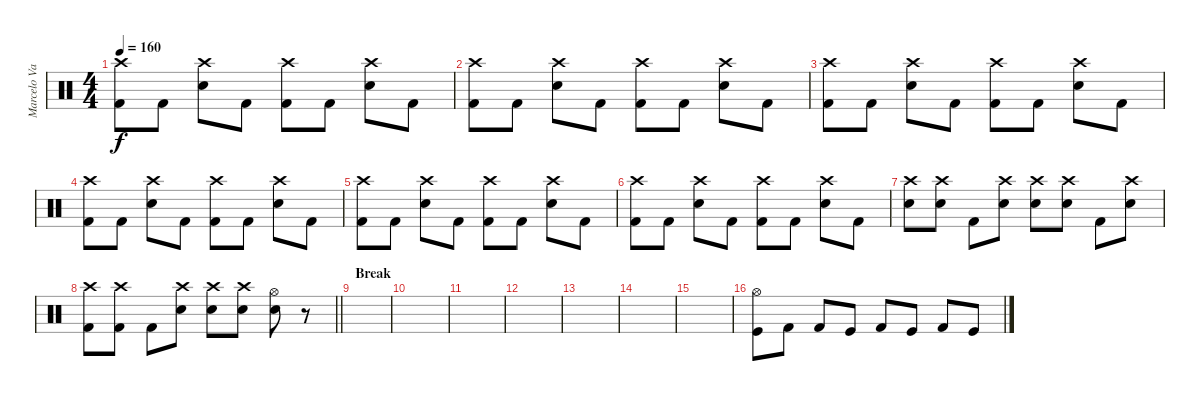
\track ("Marcelo Valenzuela (Bateria)" "Marcelo Va") {instrument percussion}
\staff {score}
\articulation defaults
\ts (4 4)
\tempo 160
\clef neutral
\ks c
("Crash high (hit)" "Kick (hit) 2").8{dy f} "Kick (hit) 2".8 ("Crash high (hit)" "Electric Snare (hit)").8 "Kick (hit) 2".8 ("Crash high (hit)" "Kick (hit) 2").8 "Kick (hit) 2".8 ("Crash high (hit)" "Electric Snare (hit)").8 "Kick (hit) 2".8 |
("Crash high (hit)" "Kick (hit) 2").8 "Kick (hit) 2".8 ("Crash high (hit)" "Electric Snare (hit)").8 "Kick (hit) 2".8 ("Crash high (hit)" "Kick (hit) 2").8 "Kick (hit) 2".8 ("Crash high (hit)" "Electric Snare (hit)").8 "Kick (hit) 2".8 |
("Crash high (hit)" "Kick (hit) 2").8 "Kick (hit) 2".8 ("Crash high (hit)" "Electric Snare (hit)").8 "Kick (hit) 2".8 ("Crash high (hit)" "Kick (hit) 2").8 "Kick (hit) 2".8 ("Crash high (hit)" "Electric Snare (hit)").8 "Kick (hit) 2".8 |
("Crash high (hit)" "Kick (hit) 2").8 "Kick (hit) 2".8 ("Crash high (hit)" "Electric Snare (hit)").8 "Kick (hit) 2".8 ("Crash high (hit)" "Kick (hit) 2").8 "Kick (hit) 2".8 ("Crash high (hit)" "Electric Snare (hit)").8 "Kick (hit) 2".8 |
("Crash high (hit)" "Kick (hit) 2").8 "Kick (hit) 2".8 ("Crash high (hit)" "Electric Snare (hit)").8 "Kick (hit) 2".8 ("Crash high (hit)" "Kick (hit) 2").8 "Kick (hit) 2".8 ("Crash high (hit)" "Electric Snare (hit)").8 "Kick (hit) 2".8 |
("Crash high (hit)" "Kick (hit) 2").8 "Kick (hit) 2".8 ("Crash high (hit)" "Electric Snare (hit)").8 "Kick (hit) 2".8 ("Crash high (hit)" "Kick (hit) 2").8 "Kick (hit) 2".8 ("Crash high (hit)" "Electric Snare (hit)").8 "Kick (hit) 2".8 |
("Crash high (hit)" "Electric Snare (hit)").8 ("Crash high (hit)" "Electric Snare (hit)").8 "Kick (hit) 2".8 ("Crash high (hit)" "Electric Snare (hit)").8 ("Crash high (hit)" "Electric Snare (hit)").8 ("Crash high (hit)" "Electric Snare (hit)").8 "Kick (hit) 2".8 ("Crash high (hit)" "Electric Snare (hit)").8 |
\barLineRight lightlight
("Crash high (hit)" "Kick (hit) 2").8 ("Crash high (hit)" "Kick (hit) 2").8 "Kick (hit) 2".8 ("Crash high (hit)" "Electric Snare (hit)").8 ("Crash high (hit)" "Electric Snare (hit)").8 ("Crash high (hit)" "Electric Snare (hit)").8 ("Hi-Hat (open)" "Electric Snare (hit)").8 r.8 |
\section ("" "Break")
|
|
|
|
|
|
|
("Hi-Hat (open)" "Kick (hit)").8 "Kick (hit) 2".8 "Kick (hit) 2".8 "Kick (hit)".8 "Kick (hit) 2".8 "Kick (hit)".8 "Kick (hit) 2".8 "Kick (hit)".8
